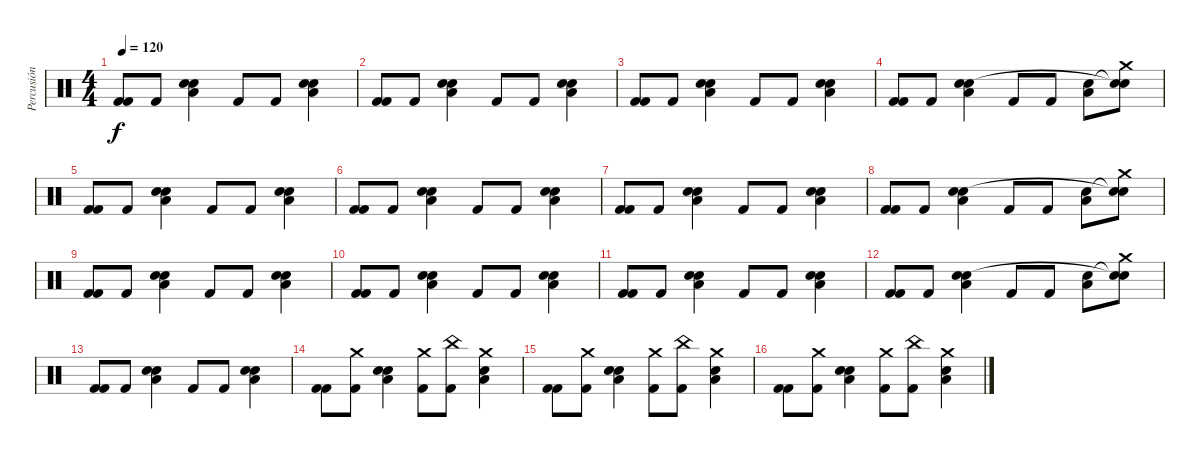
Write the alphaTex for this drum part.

\track ("Percusión" "Percusión") {instrument percussion}
\staff {score}
\articulation defaults
\ts (4 4)
\tempo 120
\clef neutral
\ks c
("Kick (hit) 2" "Kick (hit) 2").8{dy f} "Kick (hit) 2".8 ("Snare (hit) 2" "Low Tom (hit)" "Snare (hit) 2").4 "Kick (hit) 2".8 "Kick (hit) 2".8 ("Snare (hit) 2" "Low Tom (hit)" "Snare (hit) 2").4 |
("Kick (hit) 2" "Kick (hit) 2").8 "Kick (hit) 2".8 ("Snare (hit) 2" "Low Tom (hit)" "Snare (hit) 2").4 "Kick (hit) 2".8 "Kick (hit) 2".8 ("Snare (hit) 2" "Low Tom (hit)" "Snare (hit) 2").4 |
("Kick (hit) 2" "Kick (hit) 2").8 "Kick (hit) 2".8 ("Snare (hit) 2" "Low Tom (hit)" "Snare (hit) 2").4 "Kick (hit) 2".8 "Kick (hit) 2".8 ("Snare (hit) 2" "Low Tom (hit)" "Snare (hit) 2").4 |
("Kick (hit) 2" "Kick (hit) 2").8 "Kick (hit) 2".8 ("Snare (hit) 2" "Low Tom (hit)" "Snare (hit) 2").4 "Kick (hit) 2".8 "Kick (hit) 2".8 ("Low Tom (hit)" "Snare (hit) 2").8 ("Crash medium (hit)" "Snare (hit)"{t} "Snare (hit)"{t}).8 |
("Kick (hit) 2" "Kick (hit) 2").8 "Kick (hit) 2".8 ("Snare (hit) 2" "Low Tom (hit)" "Snare (hit) 2").4 "Kick (hit) 2".8 "Kick (hit) 2".8 ("Snare (hit) 2" "Low Tom (hit)" "Snare (hit) 2").4 |
("Kick (hit) 2" "Kick (hit) 2").8 "Kick (hit) 2".8 ("Snare (hit) 2" "Low Tom (hit)" "Snare (hit) 2").4 "Kick (hit) 2".8 "Kick (hit) 2".8 ("Snare (hit) 2" "Low Tom (hit)" "Snare (hit) 2").4 |
("Kick (hit) 2" "Kick (hit) 2").8 "Kick (hit) 2".8 ("Snare (hit) 2" "Low Tom (hit)" "Snare (hit) 2").4 "Kick (hit) 2".8 "Kick (hit) 2".8 ("Snare (hit) 2" "Low Tom (hit)" "Snare (hit) 2").4 |
("Kick (hit) 2" "Kick (hit) 2").8 "Kick (hit) 2".8 ("Snare (hit) 2" "Low Tom (hit)" "Snare (hit) 2").4 "Kick (hit) 2".8 "Kick (hit) 2".8 ("Low Tom (hit)" "Snare (hit) 2").8 ("Crash medium (hit)" "Snare (hit)"{t} "Snare (hit)"{t}).8 |
("Kick (hit) 2" "Kick (hit) 2").8 "Kick (hit) 2".8 ("Snare (hit) 2" "Low Tom (hit)" "Snare (hit) 2").4 "Kick (hit) 2".8 "Kick (hit) 2".8 ("Snare (hit) 2" "Low Tom (hit)" "Snare (hit) 2").4 |
("Kick (hit) 2" "Kick (hit) 2").8 "Kick (hit) 2".8 ("Snare (hit) 2" "Low Tom (hit)" "Snare (hit) 2").4 "Kick (hit) 2".8 "Kick (hit) 2".8 ("Snare (hit) 2" "Low Tom (hit)" "Snare (hit) 2").4 |
("Kick (hit) 2" "Kick (hit) 2").8 "Kick (hit) 2".8 ("Snare (hit) 2" "Low Tom (hit)" "Snare (hit) 2").4 "Kick (hit) 2".8 "Kick (hit) 2".8 ("Snare (hit) 2" "Low Tom (hit)" "Snare (hit) 2").4 |
("Kick (hit) 2" "Kick (hit) 2").8 "Kick (hit) 2".8 ("Snare (hit) 2" "Low Tom (hit)" "Snare (hit) 2").4 "Kick (hit) 2".8 "Kick (hit) 2".8 ("Low Tom (hit)" "Snare (hit) 2").8 ("Crash medium (hit)" "Snare (hit)"{t} "Snare (hit)"{t}).8 |
("Kick (hit) 2" "Kick (hit) 2").8 "Kick (hit) 2".8 ("Snare (hit) 2" "Low Tom (hit)" "Snare (hit) 2").4 "Kick (hit) 2".8 "Kick (hit) 2".8 ("Snare (hit) 2" "Low Tom (hit)" "Snare (hit) 2").4 |
("Kick (hit) 2" "Kick (hit) 2").8 ("Crash medium (hit)" "Kick (hit) 2").8 ("Snare (hit) 2" "Low Tom (hit)" "Snare (hit) 2").4 ("Crash medium (hit)" "Kick (hit) 2").8 ("China (hit)" "Kick (hit) 2").8 ("Crash medium (hit)" "Low Tom (hit)" "Snare (hit) 2").4 |
("Kick (hit) 2" "Kick (hit) 2").8 ("Crash medium (hit)" "Kick (hit) 2").8 ("Snare (hit) 2" "Low Tom (hit)" "Snare (hit) 2").4 ("Crash medium (hit)" "Kick (hit) 2").8 ("China (hit)" "Kick (hit) 2").8 ("Crash medium (hit)" "Low Tom (hit)" "Snare (hit) 2").4 |
("Kick (hit) 2" "Kick (hit) 2").8 ("Crash medium (hit)" "Kick (hit) 2").8 ("Snare (hit) 2" "Low Tom (hit)" "Snare (hit) 2").4 ("Crash medium (hit)" "Kick (hit) 2").8 ("China (hit)" "Kick (hit) 2").8 ("Crash medium (hit)" "Low Tom (hit)" "Snare (hit) 2").4
